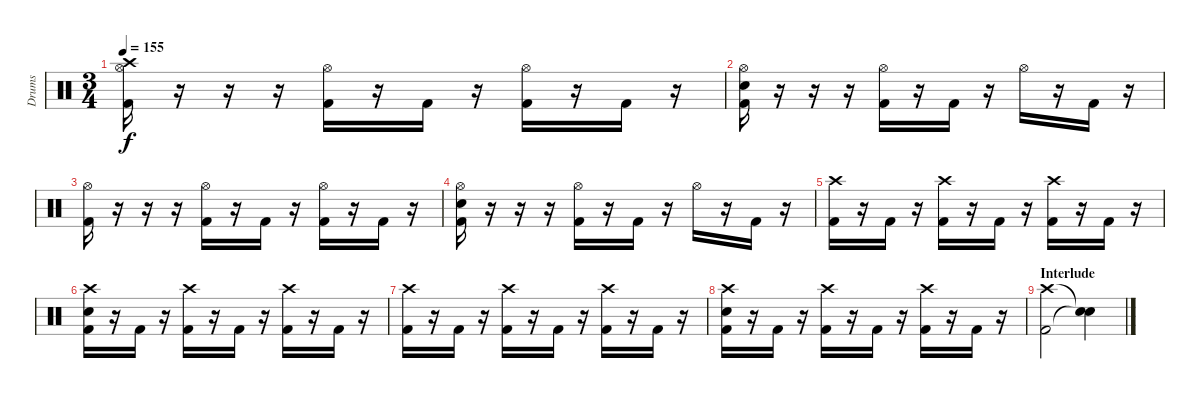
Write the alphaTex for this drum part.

\track ("Drums" "Drums") {instrument percussion}
\staff {score}
\articulation defaults
\ts (3 4)
\tempo 155
\clef neutral
\ks c
("Crash high (hit)" "Hi-Hat (open)" "Kick (hit) 2").16{dy f} r.16 r.16 r.16 ("Hi-Hat (open)" "Kick (hit) 2").16 r.16 "Kick (hit) 2".16 r.16 ("Hi-Hat (open)" "Kick (hit) 2").16 r.16 "Kick (hit) 2".16 r.16 |
("Hi-Hat (open)" "Snare (hit) 2" "Kick (hit) 2").16 r.16 r.16 r.16 ("Hi-Hat (open)" "Kick (hit) 2").16 r.16 "Kick (hit) 2".16 r.16 "Hi-Hat (open)".16 r.16 "Kick (hit) 2".16 r.16 |
("Hi-Hat (open)" "Kick (hit) 2").16 r.16 r.16 r.16 ("Hi-Hat (open)" "Kick (hit) 2").16 r.16 "Kick (hit) 2".16 r.16 ("Hi-Hat (open)" "Kick (hit) 2").16 r.16 "Kick (hit) 2".16 r.16 |
("Hi-Hat (open)" "Snare (hit) 2" "Kick (hit) 2").16 r.16 r.16 r.16 ("Hi-Hat (open)" "Kick (hit) 2").16 r.16 "Kick (hit) 2".16 r.16 "Hi-Hat (open)".16 r.16 "Kick (hit) 2".16 r.16 |
("Crash high (hit)" "Kick (hit) 2").16 r.16 "Kick (hit) 2".16 r.16 ("Crash high (hit)" "Kick (hit) 2").16 r.16 "Kick (hit) 2".16 r.16 ("Crash high (hit)" "Kick (hit) 2").16 r.16 "Kick (hit) 2".16 r.16 |
("Crash high (hit)" "Snare (hit) 2" "Kick (hit) 2").16 r.16 "Kick (hit) 2".16 r.16 ("Crash high (hit)" "Kick (hit) 2").16 r.16 "Kick (hit) 2".16 r.16 ("Crash high (hit)" "Kick (hit) 2").16 r.16 "Kick (hit) 2".16 r.16 |
("Crash high (hit)" "Kick (hit) 2").16 r.16 "Kick (hit) 2".16 r.16 ("Crash high (hit)" "Kick (hit) 2").16 r.16 "Kick (hit) 2".16 r.16 ("Crash high (hit)" "Kick (hit) 2").16 r.16 "Kick (hit) 2".16 r.16 |
("Crash high (hit)" "Snare (hit) 2" "Kick (hit) 2").16 r.16 "Kick (hit) 2".16 r.16 ("Crash high (hit)" "Kick (hit) 2").16 r.16 "Kick (hit) 2".16 r.16 ("Crash high (hit)" "Kick (hit) 2").16 r.16 "Kick (hit) 2".16 r.16 |
\section ("" "Interlude")
("Crash high (hit)" "Kick (hit) 2").2 ("Snare (hit)"{t} "Snare (hit)"{t}).4
